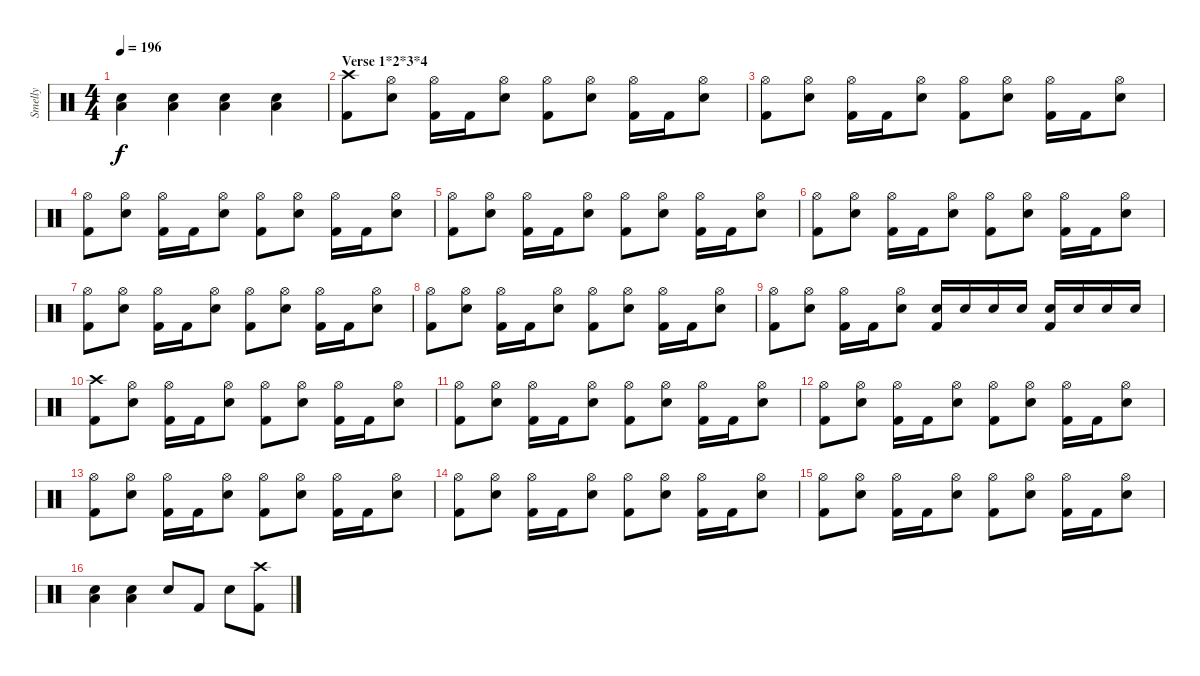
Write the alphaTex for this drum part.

\track ("Smelly" "Smelly") {instrument percussion}
\staff {score}
\articulation defaults
\ts (4 4)
\tempo 196
\clef neutral
\ks c
("Low Floor Tom (hit)" "Snare (hit) 2").4{dy f} ("Low Floor Tom (hit)" "Snare (hit) 2").4 ("Low Floor Tom (hit)" "Snare (hit) 2").4 ("Low Floor Tom (hit)" "Snare (hit) 2").4 |
\section ("" "Verse 1*2*3*4")
("Crash high (hit)" "Kick (hit) 2").8 ("Hi-Hat (open)" "Snare (hit) 2").8 ("Hi-Hat (open)" "Kick (hit) 2").16 "Kick (hit) 2".16 ("Hi-Hat (open)" "Snare (hit) 2").8 ("Hi-Hat (open)" "Kick (hit) 2").8 ("Hi-Hat (open)" "Snare (hit) 2").8 ("Hi-Hat (open)" "Kick (hit) 2").16 "Kick (hit) 2".16 ("Hi-Hat (open)" "Snare (hit) 2").8 |
("Hi-Hat (open)" "Kick (hit) 2").8 ("Hi-Hat (open)" "Snare (hit) 2").8 ("Hi-Hat (open)" "Kick (hit) 2").16 "Kick (hit) 2".16 ("Hi-Hat (open)" "Snare (hit) 2").8 ("Hi-Hat (open)" "Kick (hit) 2").8 ("Hi-Hat (open)" "Snare (hit) 2").8 ("Hi-Hat (open)" "Kick (hit) 2").16 "Kick (hit) 2".16 ("Hi-Hat (open)" "Snare (hit) 2").8 |
("Hi-Hat (open)" "Kick (hit) 2").8 ("Hi-Hat (open)" "Snare (hit) 2").8 ("Hi-Hat (open)" "Kick (hit) 2").16 "Kick (hit) 2".16 ("Hi-Hat (open)" "Snare (hit) 2").8 ("Hi-Hat (open)" "Kick (hit) 2").8 ("Hi-Hat (open)" "Snare (hit) 2").8 ("Hi-Hat (open)" "Kick (hit) 2").16 "Kick (hit) 2".16 ("Hi-Hat (open)" "Snare (hit) 2").8 |
("Hi-Hat (open)" "Kick (hit) 2").8 ("Hi-Hat (open)" "Snare (hit) 2").8 ("Hi-Hat (open)" "Kick (hit) 2").16 "Kick (hit) 2".16 ("Hi-Hat (open)" "Snare (hit) 2").8 ("Hi-Hat (open)" "Kick (hit) 2").8 ("Hi-Hat (open)" "Snare (hit) 2").8 ("Hi-Hat (open)" "Kick (hit) 2").16 "Kick (hit) 2".16 ("Hi-Hat (open)" "Snare (hit) 2").8 |
("Hi-Hat (open)" "Kick (hit) 2").8 ("Hi-Hat (open)" "Snare (hit) 2").8 ("Hi-Hat (open)" "Kick (hit) 2").16 "Kick (hit) 2".16 ("Hi-Hat (open)" "Snare (hit) 2").8 ("Hi-Hat (open)" "Kick (hit) 2").8 ("Hi-Hat (open)" "Snare (hit) 2").8 ("Hi-Hat (open)" "Kick (hit) 2").16 "Kick (hit) 2".16 ("Hi-Hat (open)" "Snare (hit) 2").8 |
("Hi-Hat (open)" "Kick (hit) 2").8 ("Hi-Hat (open)" "Snare (hit) 2").8 ("Hi-Hat (open)" "Kick (hit) 2").16 "Kick (hit) 2".16 ("Hi-Hat (open)" "Snare (hit) 2").8 ("Hi-Hat (open)" "Kick (hit) 2").8 ("Hi-Hat (open)" "Snare (hit) 2").8 ("Hi-Hat (open)" "Kick (hit) 2").16 "Kick (hit) 2".16 ("Hi-Hat (open)" "Snare (hit) 2").8 |
("Hi-Hat (open)" "Kick (hit) 2").8 ("Hi-Hat (open)" "Snare (hit) 2").8 ("Hi-Hat (open)" "Kick (hit) 2").16 "Kick (hit) 2".16 ("Hi-Hat (open)" "Snare (hit) 2").8 ("Hi-Hat (open)" "Kick (hit) 2").8 ("Hi-Hat (open)" "Snare (hit) 2").8 ("Hi-Hat (open)" "Kick (hit) 2").16 "Kick (hit) 2".16 ("Hi-Hat (open)" "Snare (hit) 2").8 |
("Hi-Hat (open)" "Kick (hit) 2").8 ("Hi-Hat (open)" "Snare (hit) 2").8 ("Hi-Hat (open)" "Kick (hit) 2").16 "Kick (hit) 2".16 ("Hi-Hat (open)" "Snare (hit) 2").8 ("Snare (hit) 2" "Kick (hit) 2").16 "Snare (hit) 2".16 "Snare (hit) 2".16 "Snare (hit) 2".16 ("Snare (hit) 2" "Kick (hit) 2").16 "Snare (hit) 2".16 "Snare (hit) 2".16 "Snare (hit) 2".16 |
("Crash high (hit)" "Kick (hit) 2").8 ("Hi-Hat (open)" "Snare (hit) 2").8 ("Hi-Hat (open)" "Kick (hit) 2").16 "Kick (hit) 2".16 ("Hi-Hat (open)" "Snare (hit) 2").8 ("Hi-Hat (open)" "Kick (hit) 2").8 ("Hi-Hat (open)" "Snare (hit) 2").8 ("Hi-Hat (open)" "Kick (hit) 2").16 "Kick (hit) 2".16 ("Hi-Hat (open)" "Snare (hit) 2").8 |
("Hi-Hat (open)" "Kick (hit) 2").8 ("Hi-Hat (open)" "Snare (hit) 2").8 ("Hi-Hat (open)" "Kick (hit) 2").16 "Kick (hit) 2".16 ("Hi-Hat (open)" "Snare (hit) 2").8 ("Hi-Hat (open)" "Kick (hit) 2").8 ("Hi-Hat (open)" "Snare (hit) 2").8 ("Hi-Hat (open)" "Kick (hit) 2").16 "Kick (hit) 2".16 ("Hi-Hat (open)" "Snare (hit) 2").8 |
("Hi-Hat (open)" "Kick (hit) 2").8 ("Hi-Hat (open)" "Snare (hit) 2").8 ("Hi-Hat (open)" "Kick (hit) 2").16 "Kick (hit) 2".16 ("Hi-Hat (open)" "Snare (hit) 2").8 ("Hi-Hat (open)" "Kick (hit) 2").8 ("Hi-Hat (open)" "Snare (hit) 2").8 ("Hi-Hat (open)" "Kick (hit) 2").16 "Kick (hit) 2".16 ("Hi-Hat (open)" "Snare (hit) 2").8 |
("Hi-Hat (open)" "Kick (hit) 2").8 ("Hi-Hat (open)" "Snare (hit) 2").8 ("Hi-Hat (open)" "Kick (hit) 2").16 "Kick (hit) 2".16 ("Hi-Hat (open)" "Snare (hit) 2").8 ("Hi-Hat (open)" "Kick (hit) 2").8 ("Hi-Hat (open)" "Snare (hit) 2").8 ("Hi-Hat (open)" "Kick (hit) 2").16 "Kick (hit) 2".16 ("Hi-Hat (open)" "Snare (hit) 2").8 |
("Hi-Hat (open)" "Kick (hit) 2").8 ("Hi-Hat (open)" "Snare (hit) 2").8 ("Hi-Hat (open)" "Kick (hit) 2").16 "Kick (hit) 2".16 ("Hi-Hat (open)" "Snare (hit) 2").8 ("Hi-Hat (open)" "Kick (hit) 2").8 ("Hi-Hat (open)" "Snare (hit) 2").8 ("Hi-Hat (open)" "Kick (hit) 2").16 "Kick (hit) 2".16 ("Hi-Hat (open)" "Snare (hit) 2").8 |
("Hi-Hat (open)" "Kick (hit) 2").8 ("Hi-Hat (open)" "Snare (hit) 2").8 ("Hi-Hat (open)" "Kick (hit) 2").16 "Kick (hit) 2".16 ("Hi-Hat (open)" "Snare (hit) 2").8 ("Hi-Hat (open)" "Kick (hit) 2").8 ("Hi-Hat (open)" "Snare (hit) 2").8 ("Hi-Hat (open)" "Kick (hit) 2").16 "Kick (hit) 2".16 ("Hi-Hat (open)" "Snare (hit) 2").8 |
("Low Floor Tom (hit)" "Snare (hit) 2").4 ("Low Floor Tom (hit)" "Snare (hit) 2").4 "Snare (hit) 2".8 "Kick (hit) 2".8 "Snare (hit) 2".8 ("Crash high (hit)" "Kick (hit) 2").8
